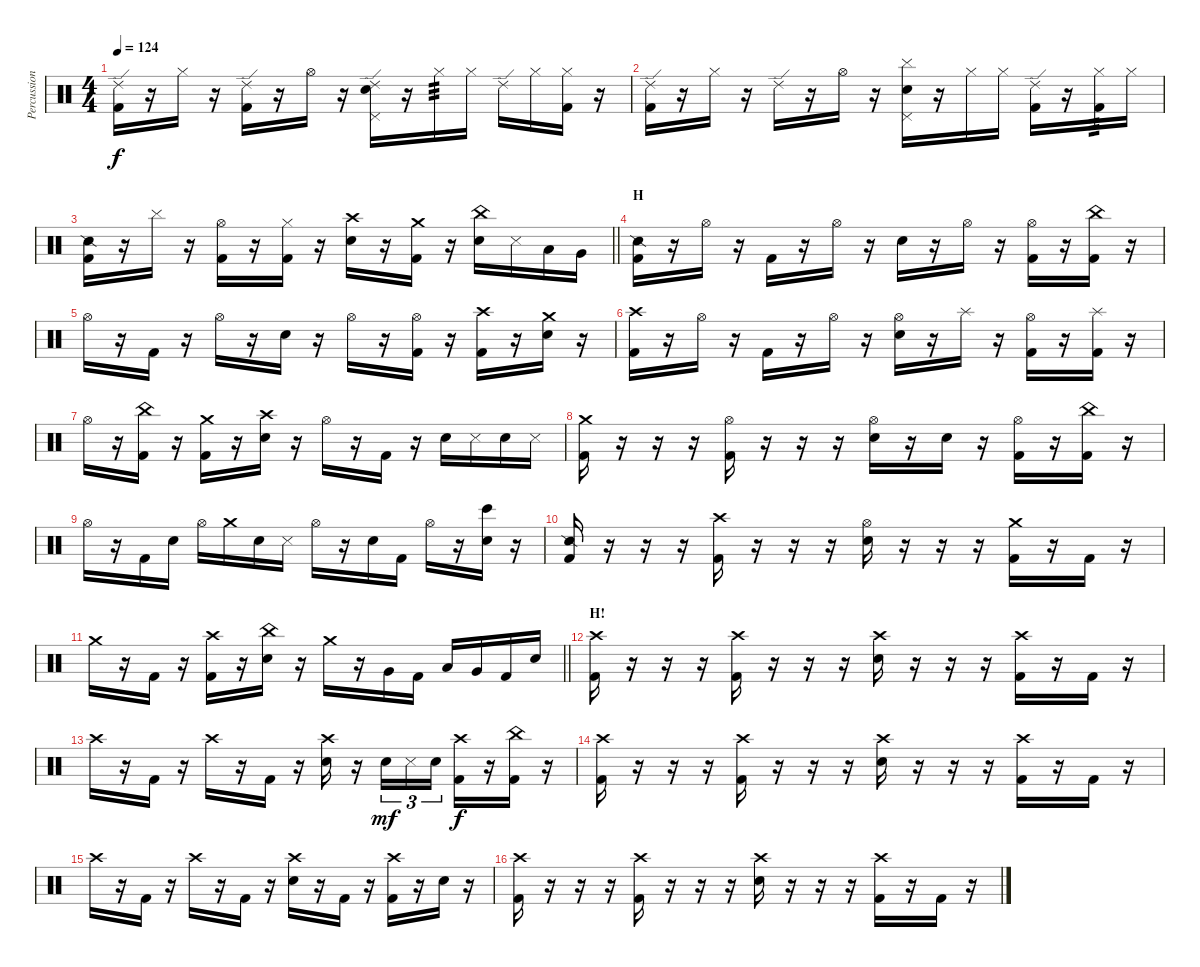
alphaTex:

\track ("Percussion" "Percussion") {instrument percussion}
\staff {score}
\articulation defaults
\ts (4 4)
\tempo 124
\clef neutral
\ks c
("Ride (edge) 2" "Kick (hit) 2").16{dy f} r.16 "Hi-Hat (closed)".16 r.16 ("Ride (edge) 2" "Kick (hit) 2").16 r.16 "Hi-Hat (open)".16 r.16 ("Ride (edge) 2" "Pedal Hi-Hat (hit)" "Snare (hit) 2").16 r.16 "Hi-Hat (closed)".16{tp 3} "Hi-Hat (closed)".16 "Ride (edge) 2".16 "Hi-Hat (closed)".16 ("Hi-Hat (closed)" "Kick (hit) 2").16 r.16 |
("Ride (edge) 2" "Kick (hit) 2").16 r.16 "Hi-Hat (closed)".16 r.16 "Ride (edge) 2".16 r.16 "Hi-Hat (open)".16 r.16 ("Cymbal (hit)" "Pedal Hi-Hat (hit)" "Snare (hit) 2").16 r.16 "Hi-Hat (closed)".16 "Hi-Hat (closed)".16 ("Ride (edge) 2" "Kick (hit) 2").16 r.16 ("Hi-Hat (closed)" "Kick (hit) 2").16{tp 3} "Hi-Hat (closed)".16 |
\barLineRight lightlight
("Snare (side stick) 2" "Kick (hit) 2").16 r.16 "Cymbal (hit)".16 r.16 ("Hi-Hat (open)" "Kick (hit) 2").16 r.16 ("Hi-Hat (closed)" "Kick (hit) 2").16 r.16 ("Crash high (hit)" "Snare (hit) 2").16 r.16 ("Crash medium (hit)" "Kick (hit) 2").16 r.16 ("China (hit)" "Snare (hit) 2").16 "Metronome (hit)".16 "Low Tom (hit)".16 "Very Low Tom (hit)".16 |
\section ("" "H")
("Snare (side stick) 2" "Kick (hit) 2").16 r.16 "Hi-Hat (open)".16 r.16 "Kick (hit) 2".16 r.16 "Hi-Hat (open)".16 r.16 "Snare (hit) 2".16 r.16 "Hi-Hat (open)".16 r.16 ("Hi-Hat (open)" "Kick (hit) 2").16 r.16 ("China (hit)" "Kick (hit) 2").16 r.16 |
"Hi-Hat (open)".16 r.16 "Kick (hit) 2".16 r.16 "Hi-Hat (open)".16 r.16 "Snare (hit) 2".16 r.16 "Hi-Hat (open)".16 r.16 ("Hi-Hat (open)" "Kick (hit) 2").16 r.16 ("Crash high (hit)" "Kick (hit) 2").16 r.16 ("Crash medium (hit)" "Snare (hit) 2").16 r.16 |
("Crash high (hit)" "Kick (hit) 2").16 r.16 "Hi-Hat (open)".16 r.16 "Kick (hit) 2".16 r.16 "Hi-Hat (open)".16 r.16 ("Hi-Hat (open)" "Snare (hit) 2").16 r.16 "Splash (hit)".16 r.16 ("Hi-Hat (open)" "Kick (hit) 2").16 r.16 ("Splash (hit)" "Kick (hit) 2").16 r.16 |
"Hi-Hat (open)".16 r.16 ("China (hit)" "Kick (hit) 2").16 r.16 ("Crash medium (hit)" "Kick (hit) 2").16 r.16 ("Crash high (hit)" "Snare (hit) 2").16 r.16 "Hi-Hat (open)".16 r.16 "Kick (hit) 2".16 r.16 "Snare (hit) 2".16 "Metronome (hit)".16 "Snare (hit) 2".16 "Metronome (hit)".16 |
("Crash medium (hit)" "Kick (hit) 2").16 r.16 r.16 r.16 ("Hi-Hat (open)" "Kick (hit) 2").16 r.16 r.16 r.16 ("Hi-Hat (open)" "Snare (hit) 2").16 r.16 "Snare (hit) 2".16 r.16 ("Hi-Hat (open)" "Kick (hit) 2").16 r.16 ("China (hit)" "Kick (hit) 2").16 r.16 |
"Hi-Hat (open)".16 r.16 "Kick (hit) 2".16 "Snare (hit) 2".16 "Hi-Hat (open)".16 "Crash medium (hit)".16 "Snare (hit) 2".16 "Metronome (hit)".16 "Hi-Hat (open)".16 r.16 "Snare (hit) 2".16 "Kick (hit) 2".16 "Hi-Hat (open)".16 r.16 ("Bongo High (hit)" "Snare (hit) 2").16 r.16 |
("Snare (side stick) 2" "Kick (hit) 2").16 r.16 r.16 r.16 ("Crash high (hit)" "Kick (hit) 2").16 r.16 r.16 r.16 ("Hi-Hat (open)" "Snare (hit) 2").16 r.16 r.16 r.16 ("Crash medium (hit)" "Kick (hit) 2").16 r.16 "Kick (hit) 2".16 r.16 |
\barLineRight lightlight "Crash medium (hit)".16
r.16 "Kick (hit) 2".16 r.16 ("Crash high (hit)" "Kick (hit) 2").16 r.16 ("China (hit)" "Snare (hit) 2").16 r.16 "Crash medium (hit)".16 r.16 "Very Low Tom (hit)".16 "Kick (hit) 2".16 "Low Tom (hit)".16 "Very Low Tom (hit)".16 "Kick (hit) 2".16 "Snare (hit) 2".16 |
\section ("" "H!")
("Crash high (hit)" "Kick (hit) 2").16 r.16 r.16 r.16 ("Crash high (hit)" "Kick (hit) 2").16 r.16 r.16 r.16 ("Crash high (hit)" "Snare (hit) 2").16 r.16 r.16 r.16 ("Crash high (hit)" "Kick (hit) 2").16 r.16 "Kick (hit) 2".16 r.16 |
"Crash high (hit)".16 r.16 "Kick (hit) 2".16 r.16 "Crash high (hit)".16 r.16 "Kick (hit) 2".16 r.16 ("Crash high (hit)" "Snare (hit) 2").16 r.16 "Snare (hit) 2".16{tu (3 2) dy mf} "Metronome (hit)".16{tu (3 2)} "Snare (hit) 2".16{tu (3 2)} ("Crash high (hit)" "Kick (hit) 2").16{dy f} r.16 ("China (hit)" "Kick (hit) 2").16 r.16 |
("Crash high (hit)" "Kick (hit) 2").16 r.16 r.16 r.16 ("Crash high (hit)" "Kick (hit) 2").16 r.16 r.16 r.16 ("Crash high (hit)" "Snare (hit) 2").16 r.16 r.16 r.16 ("Crash high (hit)" "Kick (hit) 2").16 r.16 "Kick (hit) 2".16 r.16 |
"Crash high (hit)".16 r.16 "Kick (hit) 2".16 r.16 "Crash high (hit)".16 r.16 "Kick (hit) 2".16 r.16 ("Crash high (hit)" "Snare (hit) 2").16 r.16 "Kick (hit) 2".16 r.16 ("Crash high (hit)" "Kick (hit) 2").16 r.16 "Snare (hit) 2".16 r.16 |
("Crash high (hit)" "Kick (hit) 2").16 r.16 r.16 r.16 ("Crash high (hit)" "Kick (hit) 2").16 r.16 r.16 r.16 ("Crash high (hit)" "Snare (hit) 2").16 r.16 r.16 r.16 ("Crash high (hit)" "Kick (hit) 2").16 r.16 "Kick (hit) 2".16 r.16
